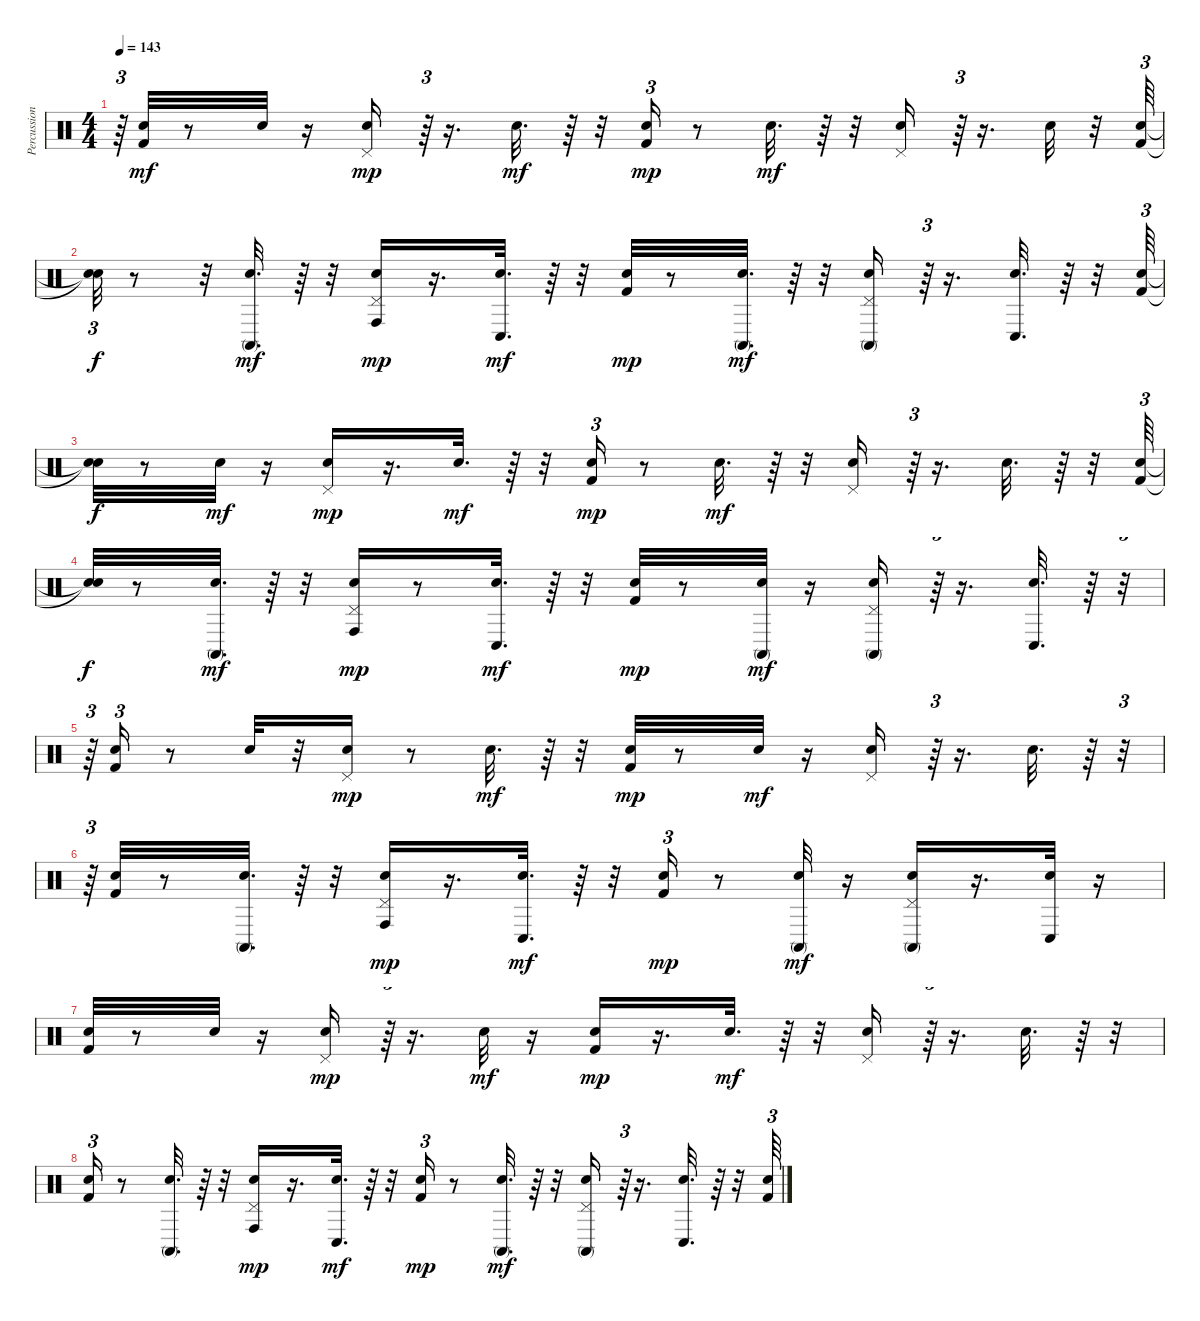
\track ("Percussion" "Percussion") {instrument percussion}
\staff {score}
\articulation defaults
\ts (4 4)
\tempo 143
\clef neutral
\ks c
r.64{tu (3 2) dy mf} ("Kick (hit) 2" "Snare (hit) 2").32 r.8 "Snare (hit) 2".32 r.16 ("Hand Clap (hit)" "Pedal Hi-Hat (hit)").16{dy mp} r.64{tu (3 2)} r.16{d} "Hand Clap (hit)".32{d dy mf} r.64 r.32 ("Kick (hit) 2" "Snare (hit) 2").16{tu (3 2) dy mp} r.8 "Snare (hit) 2".32{d dy mf} r.64 r.32 ("Hand Clap (hit)" "Pedal Hi-Hat (hit)").16 r.64{tu (3 2)} r.16{d} "Hand Clap (hit)".32 r.32 ("Kick (hit) 2" "Snare (hit) 2").64{tu (3 2)} |
("Snare (hit)"{t} "Snare (hit)"{t}).32{tu (3 2) dy f} r.8 r.32 ("Snare (hit) 2" "Conga high (mute)").32{d dy mf} r.64 r.32 ("Hand Clap (hit)" "Pedal Hi-Hat (hit)" "Conga high (hit)").16{dy mp} r.16{d} ("Hand Clap (hit)" "Conga low (hit)").32{d dy mf} r.64 r.32 ("Kick (hit) 2" "Snare (hit) 2").32{dy mp} r.8 ("Snare (hit) 2" "Conga high (mute)").32{d dy mf} r.64 r.32 ("Hand Clap (hit)" "Pedal Hi-Hat (hit)" "Conga high (mute)").16 r.64{tu (3 2)} r.16{d} ("Hand Clap (hit)" "Conga low (hit)").32{d} r.64 r.32 ("Kick (hit) 2" "Snare (hit) 2").64{tu (3 2)} |
("Snare (hit)"{t} "Snare (hit)"{t}).32{dy f} r.8 "Snare (hit) 2".32{dy mf} r.16 ("Hand Clap (hit)" "Pedal Hi-Hat (hit)").16{dy mp} r.16{d} "Hand Clap (hit)".32{d dy mf} r.64 r.32 ("Kick (hit) 2" "Snare (hit) 2").16{tu (3 2) dy mp} r.8 "Snare (hit) 2".32{d dy mf} r.64 r.32 ("Hand Clap (hit)" "Pedal Hi-Hat (hit)").16 r.64{tu (3 2)} r.16{d} "Hand Clap (hit)".32{d} r.64 r.32 ("Kick (hit) 2" "Snare (hit) 2").64{tu (3 2)} |
("Snare (hit)"{t} "Snare (hit)"{t}).32{dy f} r.8 ("Snare (hit) 2" "Conga high (mute)").32{d dy mf} r.64 r.32 ("Hand Clap (hit)" "Pedal Hi-Hat (hit)" "Conga high (hit)").16{dy mp} r.8 ("Hand Clap (hit)" "Conga low (hit)").32{d dy mf} r.64 r.32 ("Kick (hit) 2" "Snare (hit) 2").32{dy mp} r.8 ("Snare (hit) 2" "Conga high (mute)").32{dy mf} r.16 ("Hand Clap (hit)" "Pedal Hi-Hat (hit)" "Conga high (mute)").16 r.64{tu (3 2)} r.16{d} ("Hand Clap (hit)" "Conga low (hit)").32{d} r.64 r.32{tu (3 2)} |
r.64{tu (3 2)} ("Kick (hit) 2" "Snare (hit) 2").16{tu (3 2)} r.8 "Snare (hit) 2".32 r.32 ("Hand Clap (hit)" "Pedal Hi-Hat (hit)").16{dy mp} r.8 "Hand Clap (hit)".32{d dy mf} r.64 r.32 ("Kick (hit) 2" "Snare (hit) 2").32{dy mp} r.8 "Snare (hit) 2".32{dy mf} r.16 ("Hand Clap (hit)" "Pedal Hi-Hat (hit)").16 r.64{tu (3 2)} r.16{d} "Hand Clap (hit)".32{d} r.64 r.32{tu (3 2)} |
r.64{tu (3 2)} ("Kick (hit) 2" "Snare (hit) 2").32 r.8 ("Snare (hit) 2" "Conga high (mute)").32{d} r.64 r.32 ("Hand Clap (hit)" "Pedal Hi-Hat (hit)" "Conga high (hit)").16{dy mp} r.16{d} ("Hand Clap (hit)" "Conga low (hit)").32{d dy mf} r.64 r.32 ("Kick (hit) 2" "Snare (hit) 2").16{tu (3 2) dy mp} r.8 ("Snare (hit) 2" "Conga high (mute)").32{dy mf} r.16 ("Hand Clap (hit)" "Pedal Hi-Hat (hit)" "Conga high (mute)").16 r.16{d} ("Hand Clap (hit)" "Conga low (hit)").32 r.16 |
("Kick (hit) 2" "Snare (hit) 2").32 r.8 "Snare (hit) 2".32 r.16 ("Pedal Hi-Hat (hit)" "Hand Clap (hit)").16{dy mp} r.64{tu (3 2)} r.16{d} "Hand Clap (hit)".32{dy mf} r.16 ("Kick (hit) 2" "Snare (hit) 2").16{dy mp} r.16{d} "Snare (hit) 2".32{d dy mf} r.64 r.32 ("Hand Clap (hit)" "Pedal Hi-Hat (hit)").16 r.64{tu (3 2)} r.16{d} "Hand Clap (hit)".32{d} r.64 r.32 |
("Kick (hit) 2" "Snare (hit) 2").16{tu (3 2)} r.8 ("Snare (hit) 2" "Conga high (mute)").32{d} r.64 r.32 ("Hand Clap (hit)" "Pedal Hi-Hat (hit)" "Conga high (hit)").16{dy mp} r.16{d} ("Hand Clap (hit)" "Conga low (hit)").32{d dy mf} r.64 r.32 ("Kick (hit) 2" "Snare (hit) 2").16{tu (3 2) dy mp} r.8 ("Snare (hit) 2" "Conga high (mute)").32{d dy mf} r.64 r.32 ("Hand Clap (hit)" "Pedal Hi-Hat (hit)" "Conga high (mute)").16 r.64{tu (3 2)} r.16{d} ("Hand Clap (hit)" "Conga low (hit)").32{d} r.64 r.32 ("Kick (hit) 2" "Snare (hit) 2").64{tu (3 2)}
